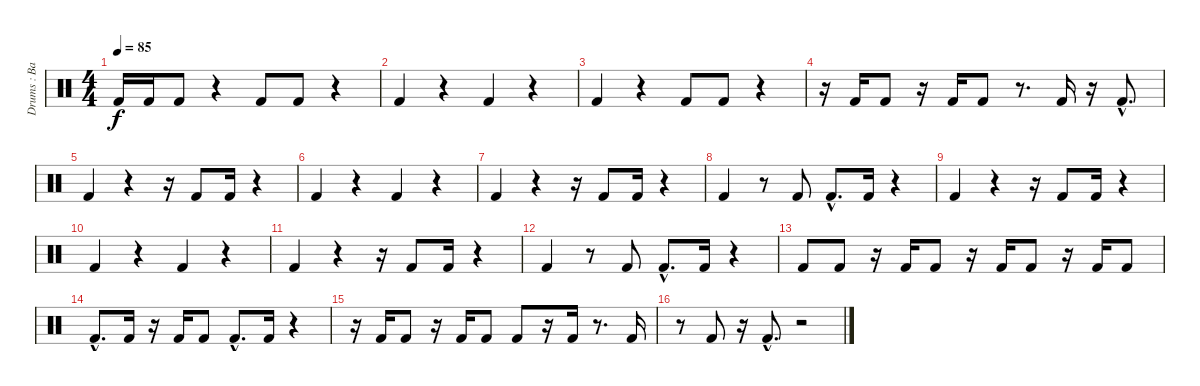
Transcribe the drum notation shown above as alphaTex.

\track ("Drums : Bass Drums" "Drums : Ba") {instrument percussion}
\staff {score}
\articulation defaults
\ts (4 4)
\tempo 85
\clef neutral
\ks c "Kick (hit) 2".16{dy f} "Kick (hit) 2".16 "Kick (hit) 2".8
r.4 "Kick (hit) 2".8 "Kick (hit) 2".8 r.4 |
"Kick (hit) 2".4 r.4 "Kick (hit) 2".4 r.4 |
"Kick (hit) 2".4 r.4 "Kick (hit) 2".8 "Kick (hit) 2".8 r.4 |
r.16 "Kick (hit) 2".16 "Kick (hit) 2".8 r.16 "Kick (hit) 2".16 "Kick (hit) 2".8 r.8{d} "Kick (hit) 2".16 r.16 "Kick (hit) 2"{hac}.8{d} |
"Kick (hit) 2".4 r.4 r.16 "Kick (hit) 2".8 "Kick (hit) 2".16 r.4 |
"Kick (hit) 2".4 r.4 "Kick (hit) 2".4 r.4 |
"Kick (hit) 2".4 r.4 r.16 "Kick (hit) 2".8 "Kick (hit) 2".16 r.4 |
"Kick (hit) 2".4 r.8 "Kick (hit) 2".8 "Kick (hit) 2"{hac}.8{d} "Kick (hit) 2".16 r.4 |
"Kick (hit) 2".4 r.4 r.16 "Kick (hit) 2".8 "Kick (hit) 2".16 r.4 |
"Kick (hit) 2".4 r.4 "Kick (hit) 2".4 r.4 |
"Kick (hit) 2".4 r.4 r.16 "Kick (hit) 2".8 "Kick (hit) 2".16 r.4 |
"Kick (hit) 2".4 r.8 "Kick (hit) 2".8 "Kick (hit) 2"{hac}.8{d} "Kick (hit) 2".16 r.4 |
"Kick (hit) 2".8 "Kick (hit) 2".8 r.16 "Kick (hit) 2".16 "Kick (hit) 2".8 r.16 "Kick (hit) 2".16 "Kick (hit) 2".8 r.16 "Kick (hit) 2".16 "Kick (hit) 2".8 |
"Kick (hit) 2"{hac}.8{d} "Kick (hit) 2".16 r.16 "Kick (hit) 2".16 "Kick (hit) 2".8 "Kick (hit) 2"{hac}.8{d} "Kick (hit) 2".16 r.4 |
r.16 "Kick (hit) 2".16 "Kick (hit) 2".8 r.16 "Kick (hit) 2".16 "Kick (hit) 2".8 "Kick (hit) 2".8 r.16 "Kick (hit) 2".16 r.8{d} "Kick (hit) 2".16 |
r.8 "Kick (hit) 2".8 r.16 "Kick (hit) 2"{hac}.8{d} r.2
